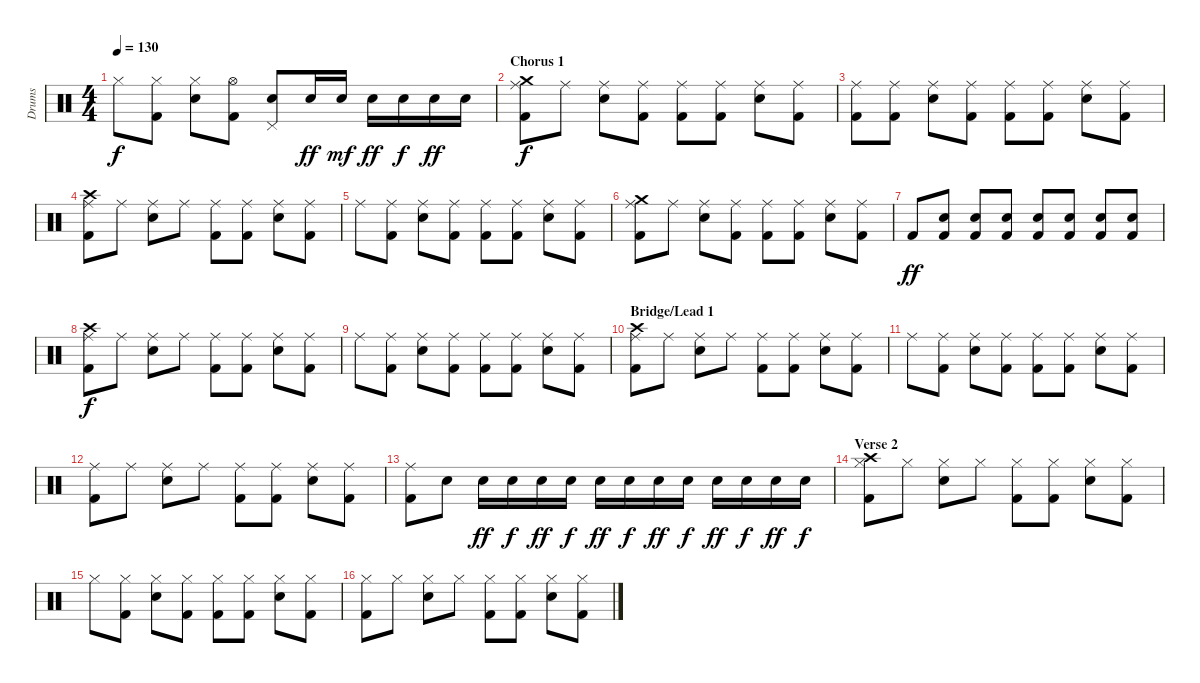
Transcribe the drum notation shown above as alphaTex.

\track ("Drums" "Drums") {instrument percussion}
\staff {score}
\articulation defaults
\ts (4 4)
\tempo 130
\clef neutral
\ks c "Hi-Hat (closed)".8{dy f}
("Hi-Hat (closed)" "Kick (hit) 2").8 ("Hi-Hat (closed)" "Electric Snare (hit)").8 ("Hi-Hat (open)" "Kick (hit) 2").8 ("Pedal Hi-Hat (hit)" "Electric Snare (hit)").8 "Electric Snare (hit)".16{dy ff} "Electric Snare (hit)".16{dy mf} "Electric Snare (hit)".16{dy ff} "Electric Snare (hit)".16{dy f} "Electric Snare (hit)".16{dy ff} "Electric Snare (hit)".16 |
\section ("" "Chorus 1")
("Ride (middle)" "Crash medium (hit)" "Kick (hit) 2").8{dy f} "Ride (middle)".8 ("Ride (middle)" "Electric Snare (hit)").8 ("Ride (middle)" "Kick (hit) 2").8 ("Ride (middle)" "Kick (hit) 2").8 ("Ride (middle)" "Kick (hit) 2").8 ("Ride (middle)" "Electric Snare (hit)").8 ("Ride (middle)" "Kick (hit) 2").8 |
("Ride (middle)" "Kick (hit) 2").8 ("Ride (middle)" "Kick (hit) 2").8 ("Ride (middle)" "Electric Snare (hit)").8 ("Ride (middle)" "Kick (hit) 2").8 ("Ride (middle)" "Kick (hit) 2").8 ("Ride (middle)" "Kick (hit) 2").8 ("Ride (middle)" "Electric Snare (hit)").8 ("Ride (middle)" "Kick (hit) 2").8 |
("Ride (middle)" "Crash high (hit)" "Kick (hit) 2").8 "Ride (middle)".8 ("Ride (middle)" "Electric Snare (hit)").8 "Ride (middle)".8 ("Ride (middle)" "Kick (hit) 2").8 ("Ride (middle)" "Kick (hit) 2").8 ("Ride (middle)" "Electric Snare (hit)").8 ("Ride (middle)" "Kick (hit) 2").8 |
"Ride (middle)".8 ("Ride (middle)" "Kick (hit) 2").8 ("Ride (middle)" "Electric Snare (hit)").8 ("Ride (middle)" "Kick (hit) 2").8 ("Ride (middle)" "Kick (hit) 2").8 ("Ride (middle)" "Kick (hit) 2").8 ("Ride (middle)" "Electric Snare (hit)").8 ("Ride (middle)" "Kick (hit) 2").8 |
("Ride (middle)" "Crash medium (hit)" "Kick (hit) 2").8 "Ride (middle)".8 ("Ride (middle)" "Electric Snare (hit)").8 ("Ride (middle)" "Kick (hit) 2").8 ("Ride (middle)" "Kick (hit) 2").8 ("Ride (middle)" "Kick (hit) 2").8 ("Ride (middle)" "Electric Snare (hit)").8 ("Ride (middle)" "Kick (hit) 2").8 |
"Kick (hit) 2".8{dy ff} ("Electric Snare (hit)" "Kick (hit) 2").8 ("Electric Snare (hit)" "Kick (hit) 2").8 ("Electric Snare (hit)" "Kick (hit) 2").8 ("Electric Snare (hit)" "Kick (hit) 2").8 ("Electric Snare (hit)" "Kick (hit) 2").8 ("Electric Snare (hit)" "Kick (hit) 2").8 ("Electric Snare (hit)" "Kick (hit) 2").8 |
("Ride (middle)" "Crash high (hit)" "Kick (hit) 2").8{dy f} "Ride (middle)".8 ("Ride (middle)" "Electric Snare (hit)").8 "Ride (middle)".8 ("Ride (middle)" "Kick (hit) 2").8 ("Ride (middle)" "Kick (hit) 2").8 ("Ride (middle)" "Electric Snare (hit)").8 ("Ride (middle)" "Kick (hit) 2").8 |
"Ride (middle)".8 ("Ride (middle)" "Kick (hit) 2").8 ("Ride (middle)" "Electric Snare (hit)").8 ("Ride (middle)" "Kick (hit) 2").8 ("Ride (middle)" "Kick (hit) 2").8 ("Ride (middle)" "Kick (hit) 2").8 ("Ride (middle)" "Electric Snare (hit)").8 ("Ride (middle)" "Kick (hit) 2").8 |
\section ("" "Bridge/Lead 1")
("Ride (middle)" "Crash high (hit)" "Kick (hit) 2").8 "Ride (middle)".8 ("Ride (middle)" "Electric Snare (hit)").8 "Ride (middle)".8 ("Ride (middle)" "Kick (hit) 2").8 ("Ride (middle)" "Kick (hit) 2").8 ("Ride (middle)" "Electric Snare (hit)").8 ("Ride (middle)" "Kick (hit) 2").8 |
"Ride (middle)".8 ("Ride (middle)" "Kick (hit) 2").8 ("Ride (middle)" "Electric Snare (hit)").8 ("Ride (middle)" "Kick (hit) 2").8 ("Ride (middle)" "Kick (hit) 2").8 ("Ride (middle)" "Kick (hit) 2").8 ("Ride (middle)" "Electric Snare (hit)").8 ("Ride (middle)" "Kick (hit) 2").8 |
("Ride (middle)" "Kick (hit) 2").8 "Ride (middle)".8 ("Ride (middle)" "Electric Snare (hit)").8 "Ride (middle)".8 ("Ride (middle)" "Kick (hit) 2").8 ("Ride (middle)" "Kick (hit) 2").8 ("Ride (middle)" "Electric Snare (hit)").8 ("Ride (middle)" "Kick (hit) 2").8 |
("Ride (middle)" "Kick (hit) 2").8 "Electric Snare (hit)".8 "Electric Snare (hit)".16{dy ff} "Electric Snare (hit)".16{dy f} "Electric Snare (hit)".16{dy ff} "Electric Snare (hit)".16{dy f} "Electric Snare (hit)".16{dy ff} "Electric Snare (hit)".16{dy f} "Electric Snare (hit)".16{dy ff} "Electric Snare (hit)".16{dy f} "Electric Snare (hit)".16{dy ff} "Electric Snare (hit)".16{dy f} "Electric Snare (hit)".16{dy ff} "Electric Snare (hit)".16{dy f} |
\section ("" "Verse 2")
("Hi-Hat (closed)" "Crash high (hit)" "Kick (hit) 2").8 "Hi-Hat (closed)".8 ("Hi-Hat (closed)" "Electric Snare (hit)").8 "Hi-Hat (closed)".8 ("Hi-Hat (closed)" "Kick (hit) 2").8 ("Hi-Hat (closed)" "Kick (hit) 2").8 ("Hi-Hat (closed)" "Electric Snare (hit)").8 ("Hi-Hat (closed)" "Kick (hit) 2").8 |
"Hi-Hat (closed)".8 ("Hi-Hat (closed)" "Kick (hit) 2").8 ("Hi-Hat (closed)" "Electric Snare (hit)").8 ("Hi-Hat (closed)" "Kick (hit) 2").8 ("Hi-Hat (closed)" "Kick (hit) 2").8 ("Hi-Hat (closed)" "Kick (hit) 2").8 ("Hi-Hat (closed)" "Electric Snare (hit)").8 ("Hi-Hat (closed)" "Kick (hit) 2").8 |
("Hi-Hat (closed)" "Kick (hit) 2").8 "Hi-Hat (closed)".8 ("Hi-Hat (closed)" "Electric Snare (hit)").8 "Hi-Hat (closed)".8 ("Hi-Hat (closed)" "Kick (hit) 2").8 ("Hi-Hat (closed)" "Kick (hit) 2").8 ("Hi-Hat (closed)" "Electric Snare (hit)").8 ("Hi-Hat (closed)" "Kick (hit) 2").8
